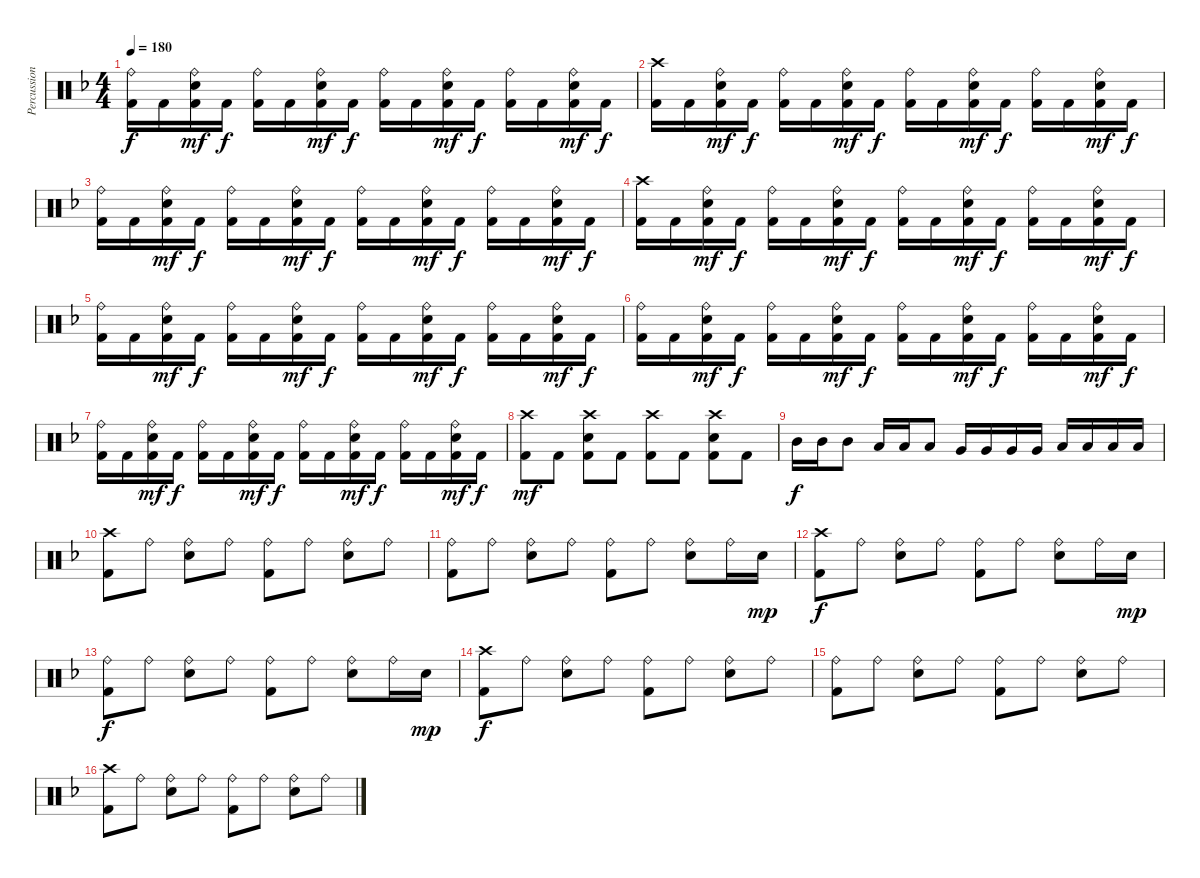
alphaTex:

\track ("Percussion" "Percussion") {instrument percussion}
\staff {score}
\articulation defaults
\ts (4 4)
\tempo 180
\clef neutral
\ks dminor
("Ride (bell)" "Kick (hit) 2").16{dy f} "Kick (hit) 2".16 ("Ride (bell)" "Snare (hit) 2" "Kick (hit) 2").16{dy mf} "Kick (hit) 2".16{dy f} ("Ride (bell)" "Kick (hit) 2").16 "Kick (hit) 2".16 ("Ride (bell)" "Snare (hit) 2" "Kick (hit) 2").16{dy mf} "Kick (hit) 2".16{dy f} ("Ride (bell)" "Kick (hit) 2").16 "Kick (hit) 2".16 ("Ride (bell)" "Snare (hit) 2" "Kick (hit) 2").16{dy mf} "Kick (hit) 2".16{dy f} ("Ride (bell)" "Kick (hit) 2").16 "Kick (hit) 2".16 ("Ride (bell)" "Snare (hit) 2" "Kick (hit) 2").16{dy mf} "Kick (hit) 2".16{dy f} |
("Crash high (hit)" "Kick (hit) 2").16 "Kick (hit) 2".16 ("Ride (bell)" "Snare (hit) 2" "Kick (hit) 2").16{dy mf} "Kick (hit) 2".16{dy f} ("Ride (bell)" "Kick (hit) 2").16 "Kick (hit) 2".16 ("Ride (bell)" "Snare (hit) 2" "Kick (hit) 2").16{dy mf} "Kick (hit) 2".16{dy f} ("Ride (bell)" "Kick (hit) 2").16 "Kick (hit) 2".16 ("Ride (bell)" "Snare (hit) 2" "Kick (hit) 2").16{dy mf} "Kick (hit) 2".16{dy f} ("Ride (bell)" "Kick (hit) 2").16 "Kick (hit) 2".16 ("Ride (bell)" "Snare (hit) 2" "Kick (hit) 2").16{dy mf} "Kick (hit) 2".16{dy f} |
("Ride (bell)" "Kick (hit) 2").16 "Kick (hit) 2".16 ("Ride (bell)" "Snare (hit) 2" "Kick (hit) 2").16{dy mf} "Kick (hit) 2".16{dy f} ("Ride (bell)" "Kick (hit) 2").16 "Kick (hit) 2".16 ("Ride (bell)" "Snare (hit) 2" "Kick (hit) 2").16{dy mf} "Kick (hit) 2".16{dy f} ("Ride (bell)" "Kick (hit) 2").16 "Kick (hit) 2".16 ("Ride (bell)" "Snare (hit) 2" "Kick (hit) 2").16{dy mf} "Kick (hit) 2".16{dy f} ("Ride (bell)" "Kick (hit) 2").16 "Kick (hit) 2".16 ("Ride (bell)" "Snare (hit) 2" "Kick (hit) 2").16{dy mf} "Kick (hit) 2".16{dy f} |
("Crash high (hit)" "Kick (hit) 2").16 "Kick (hit) 2".16 ("Ride (bell)" "Snare (hit) 2" "Kick (hit) 2").16{dy mf} "Kick (hit) 2".16{dy f} ("Ride (bell)" "Kick (hit) 2").16 "Kick (hit) 2".16 ("Ride (bell)" "Snare (hit) 2" "Kick (hit) 2").16{dy mf} "Kick (hit) 2".16{dy f} ("Ride (bell)" "Kick (hit) 2").16 "Kick (hit) 2".16 ("Ride (bell)" "Snare (hit) 2" "Kick (hit) 2").16{dy mf} "Kick (hit) 2".16{dy f} ("Ride (bell)" "Kick (hit) 2").16 "Kick (hit) 2".16 ("Ride (bell)" "Snare (hit) 2" "Kick (hit) 2").16{dy mf} "Kick (hit) 2".16{dy f} |
("Ride (bell)" "Kick (hit) 2").16 "Kick (hit) 2".16 ("Ride (bell)" "Snare (hit) 2" "Kick (hit) 2").16{dy mf} "Kick (hit) 2".16{dy f} ("Ride (bell)" "Kick (hit) 2").16 "Kick (hit) 2".16 ("Ride (bell)" "Snare (hit) 2" "Kick (hit) 2").16{dy mf} "Kick (hit) 2".16{dy f} ("Ride (bell)" "Kick (hit) 2").16 "Kick (hit) 2".16 ("Ride (bell)" "Snare (hit) 2" "Kick (hit) 2").16{dy mf} "Kick (hit) 2".16{dy f} ("Ride (bell)" "Kick (hit) 2").16 "Kick (hit) 2".16 ("Ride (bell)" "Snare (hit) 2" "Kick (hit) 2").16{dy mf} "Kick (hit) 2".16{dy f} |
("Ride (bell)" "Kick (hit) 2").16 "Kick (hit) 2".16 ("Ride (bell)" "Snare (hit) 2" "Kick (hit) 2").16{dy mf} "Kick (hit) 2".16{dy f} ("Ride (bell)" "Kick (hit) 2").16 "Kick (hit) 2".16 ("Ride (bell)" "Snare (hit) 2" "Kick (hit) 2").16{dy mf} "Kick (hit) 2".16{dy f} ("Ride (bell)" "Kick (hit) 2").16 "Kick (hit) 2".16 ("Ride (bell)" "Snare (hit) 2" "Kick (hit) 2").16{dy mf} "Kick (hit) 2".16{dy f} ("Ride (bell)" "Kick (hit) 2").16 "Kick (hit) 2".16 ("Ride (bell)" "Snare (hit) 2" "Kick (hit) 2").16{dy mf} "Kick (hit) 2".16{dy f} |
("Ride (bell)" "Kick (hit) 2").16 "Kick (hit) 2".16 ("Ride (bell)" "Snare (hit) 2" "Kick (hit) 2").16{dy mf} "Kick (hit) 2".16{dy f} ("Ride (bell)" "Kick (hit) 2").16 "Kick (hit) 2".16 ("Ride (bell)" "Snare (hit) 2" "Kick (hit) 2").16{dy mf} "Kick (hit) 2".16{dy f} ("Ride (bell)" "Kick (hit) 2").16 "Kick (hit) 2".16 ("Ride (bell)" "Snare (hit) 2" "Kick (hit) 2").16{dy mf} "Kick (hit) 2".16{dy f} ("Ride (bell)" "Kick (hit) 2").16 "Kick (hit) 2".16 ("Ride (bell)" "Snare (hit) 2" "Kick (hit) 2").16{dy mf} "Kick (hit) 2".16{dy f} |
("Crash high (hit)" "Kick (hit) 2").8{dy mf} "Kick (hit) 2".8 ("Crash high (hit)" "Snare (hit) 2" "Kick (hit) 2").8 "Kick (hit) 2".8 ("Crash high (hit)" "Kick (hit) 2").8 "Kick (hit) 2".8 ("Crash high (hit)" "Snare (hit) 2" "Kick (hit) 2").8 "Kick (hit) 2".8 |
"Mid Tom (hit)".16{dy f} "Mid Tom (hit)".16 "Mid Tom (hit)".8 "Low Tom (hit)".16 "Low Tom (hit)".16 "Low Tom (hit)".8 "Very Low Tom (hit)".16 "Very Low Tom (hit)".16 "Very Low Tom (hit)".16 "Very Low Tom (hit)".16 "Low Floor Tom (hit)".16 "Low Floor Tom (hit)".16 "Low Floor Tom (hit)".16 "Low Floor Tom (hit)".16 |
("Crash high (hit)" "Kick (hit) 2").8 "Ride (bell)".8 ("Ride (bell)" "Snare (hit) 2").8 "Ride (bell)".8 ("Ride (bell)" "Kick (hit) 2").8 "Ride (bell)".8 ("Ride (bell)" "Snare (hit) 2").8 "Ride (bell)".8 |
("Ride (bell)" "Kick (hit) 2").8 "Ride (bell)".8 ("Ride (bell)" "Snare (hit) 2").8 "Ride (bell)".8 ("Ride (bell)" "Kick (hit) 2").8 "Ride (bell)".8 ("Ride (bell)" "Snare (hit) 2").8 "Ride (bell)".16 "Snare (hit) 2".16{dy mp} |
("Crash high (hit)" "Kick (hit) 2").8{dy f} "Ride (bell)".8 ("Ride (bell)" "Snare (hit) 2").8 "Ride (bell)".8 ("Ride (bell)" "Kick (hit) 2").8 "Ride (bell)".8 ("Ride (bell)" "Snare (hit) 2").8 "Ride (bell)".16 "Snare (hit) 2".16{dy mp} |
("Ride (bell)" "Kick (hit) 2").8{dy f} "Ride (bell)".8 ("Ride (bell)" "Snare (hit) 2").8 "Ride (bell)".8 ("Ride (bell)" "Kick (hit) 2").8 "Ride (bell)".8 ("Ride (bell)" "Snare (hit) 2").8 "Ride (bell)".16 "Snare (hit) 2".16{dy mp} |
("Crash high (hit)" "Kick (hit) 2").8{dy f} "Ride (bell)".8 ("Ride (bell)" "Snare (hit) 2").8 "Ride (bell)".8 ("Ride (bell)" "Kick (hit) 2").8 "Ride (bell)".8 ("Ride (bell)" "Snare (hit) 2").8 "Ride (bell)".8 |
("Ride (bell)" "Kick (hit) 2").8 "Ride (bell)".8 ("Ride (bell)" "Snare (hit) 2").8 "Ride (bell)".8 ("Ride (bell)" "Kick (hit) 2").8 "Ride (bell)".8 ("Ride (bell)" "Snare (hit) 2").8 "Ride (bell)".8 |
("Crash high (hit)" "Kick (hit) 2").8 "Ride (bell)".8 ("Ride (bell)" "Snare (hit) 2").8 "Ride (bell)".8 ("Ride (bell)" "Kick (hit) 2").8 "Ride (bell)".8 ("Ride (bell)" "Snare (hit) 2").8 "Ride (bell)".8
